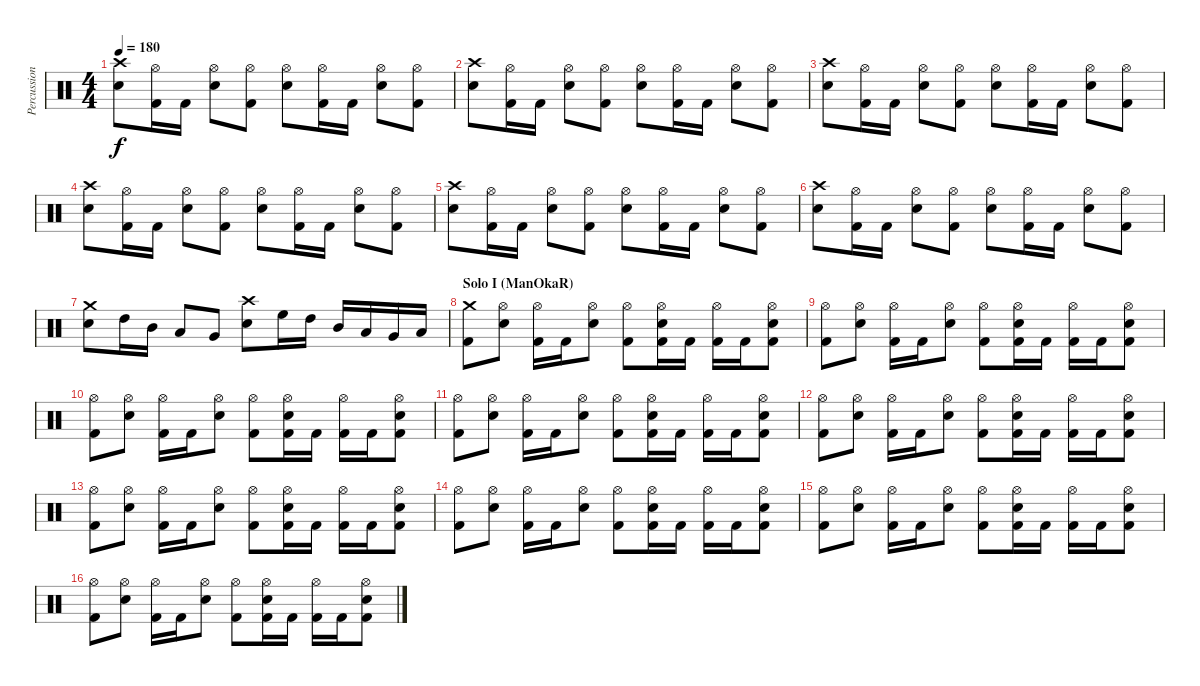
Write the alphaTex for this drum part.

\track ("Percussion" "Percussion") {instrument percussion}
\staff {score}
\articulation defaults
\ts (4 4)
\tempo 180
\clef neutral
\ks c
("Crash high (hit)" "Snare (hit) 2").8{dy f} ("Hi-Hat (open)" "Kick (hit) 2").16 "Kick (hit) 2".16 ("Hi-Hat (open)" "Snare (hit) 2").8 ("Hi-Hat (open)" "Kick (hit) 2").8 ("Hi-Hat (open)" "Snare (hit) 2").8 ("Hi-Hat (open)" "Kick (hit) 2").16 "Kick (hit) 2".16 ("Hi-Hat (open)" "Snare (hit) 2").8 ("Hi-Hat (open)" "Kick (hit) 2").8 |
("Crash high (hit)" "Snare (hit) 2").8 ("Hi-Hat (open)" "Kick (hit) 2").16 "Kick (hit) 2".16 ("Hi-Hat (open)" "Snare (hit) 2").8 ("Hi-Hat (open)" "Kick (hit) 2").8 ("Hi-Hat (open)" "Snare (hit) 2").8 ("Hi-Hat (open)" "Kick (hit) 2").16 "Kick (hit) 2".16 ("Hi-Hat (open)" "Snare (hit) 2").8 ("Hi-Hat (open)" "Kick (hit) 2").8 |
("Crash high (hit)" "Snare (hit) 2").8 ("Hi-Hat (open)" "Kick (hit) 2").16 "Kick (hit) 2".16 ("Hi-Hat (open)" "Snare (hit) 2").8 ("Hi-Hat (open)" "Kick (hit) 2").8 ("Hi-Hat (open)" "Snare (hit) 2").8 ("Hi-Hat (open)" "Kick (hit) 2").16 "Kick (hit) 2".16 ("Hi-Hat (open)" "Snare (hit) 2").8 ("Hi-Hat (open)" "Kick (hit) 2").8 |
("Crash high (hit)" "Snare (hit) 2").8 ("Hi-Hat (open)" "Kick (hit) 2").16 "Kick (hit) 2".16 ("Hi-Hat (open)" "Snare (hit) 2").8 ("Hi-Hat (open)" "Kick (hit) 2").8 ("Hi-Hat (open)" "Snare (hit) 2").8 ("Hi-Hat (open)" "Kick (hit) 2").16 "Kick (hit) 2".16 ("Hi-Hat (open)" "Snare (hit) 2").8 ("Hi-Hat (open)" "Kick (hit) 2").8 |
("Crash high (hit)" "Snare (hit) 2").8 ("Hi-Hat (open)" "Kick (hit) 2").16 "Kick (hit) 2".16 ("Hi-Hat (open)" "Snare (hit) 2").8 ("Hi-Hat (open)" "Kick (hit) 2").8 ("Hi-Hat (open)" "Snare (hit) 2").8 ("Hi-Hat (open)" "Kick (hit) 2").16 "Kick (hit) 2".16 ("Hi-Hat (open)" "Snare (hit) 2").8 ("Hi-Hat (open)" "Kick (hit) 2").8 |
("Crash high (hit)" "Snare (hit) 2").8 ("Hi-Hat (open)" "Kick (hit) 2").16 "Kick (hit) 2".16 ("Hi-Hat (open)" "Snare (hit) 2").8 ("Hi-Hat (open)" "Kick (hit) 2").8 ("Hi-Hat (open)" "Snare (hit) 2").8 ("Hi-Hat (open)" "Kick (hit) 2").16 "Kick (hit) 2".16 ("Hi-Hat (open)" "Snare (hit) 2").8 ("Hi-Hat (open)" "Kick (hit) 2").8 |
("Snare (hit) 2" "Crash medium (hit)").8 "High Tom (hit)".16 "Mid Tom (hit)".16 "Low Tom (hit)".8 "Very Low Tom (hit)".8 ("Snare (hit) 2" "Crash high (hit)").8 "High Floor Tom (hit)".16 "High Tom (hit)".16 "Mid Tom (hit)".16 "Low Tom (hit)".16 "Very Low Tom (hit)".16 "Low Floor Tom (hit)".16 |
\section ("" "Solo I (ManOkaR)")
("Crash medium (hit)" "Kick (hit) 2").8 ("Hi-Hat (open)" "Snare (hit) 2").8 ("Hi-Hat (open)" "Kick (hit) 2").16 "Kick (hit) 2".16 ("Hi-Hat (open)" "Snare (hit) 2").8 ("Hi-Hat (open)" "Kick (hit) 2").8 ("Hi-Hat (open)" "Snare (hit) 2" "Kick (hit) 2").16 "Kick (hit) 2".16 ("Hi-Hat (open)" "Kick (hit) 2").16 "Kick (hit) 2".16 ("Hi-Hat (open)" "Snare (hit) 2" "Kick (hit) 2").8 |
("Hi-Hat (open)" "Kick (hit) 2").8 ("Hi-Hat (open)" "Snare (hit) 2").8 ("Hi-Hat (open)" "Kick (hit) 2").16 "Kick (hit) 2".16 ("Hi-Hat (open)" "Snare (hit) 2").8 ("Hi-Hat (open)" "Kick (hit) 2").8 ("Hi-Hat (open)" "Snare (hit) 2" "Kick (hit) 2").16 "Kick (hit) 2".16 ("Hi-Hat (open)" "Kick (hit) 2").16 "Kick (hit) 2".16 ("Hi-Hat (open)" "Snare (hit) 2" "Kick (hit) 2").8 |
("Hi-Hat (open)" "Kick (hit) 2").8 ("Hi-Hat (open)" "Snare (hit) 2").8 ("Hi-Hat (open)" "Kick (hit) 2").16 "Kick (hit) 2".16 ("Hi-Hat (open)" "Snare (hit) 2").8 ("Hi-Hat (open)" "Kick (hit) 2").8 ("Hi-Hat (open)" "Snare (hit) 2" "Kick (hit) 2").16 "Kick (hit) 2".16 ("Hi-Hat (open)" "Kick (hit) 2").16 "Kick (hit) 2".16 ("Hi-Hat (open)" "Snare (hit) 2" "Kick (hit) 2").8 |
("Hi-Hat (open)" "Kick (hit) 2").8 ("Hi-Hat (open)" "Snare (hit) 2").8 ("Hi-Hat (open)" "Kick (hit) 2").16 "Kick (hit) 2".16 ("Hi-Hat (open)" "Snare (hit) 2").8 ("Hi-Hat (open)" "Kick (hit) 2").8 ("Hi-Hat (open)" "Snare (hit) 2" "Kick (hit) 2").16 "Kick (hit) 2".16 ("Hi-Hat (open)" "Kick (hit) 2").16 "Kick (hit) 2".16 ("Hi-Hat (open)" "Snare (hit) 2" "Kick (hit) 2").8 |
("Hi-Hat (open)" "Kick (hit) 2").8 ("Hi-Hat (open)" "Snare (hit) 2").8 ("Hi-Hat (open)" "Kick (hit) 2").16 "Kick (hit) 2".16 ("Hi-Hat (open)" "Snare (hit) 2").8 ("Hi-Hat (open)" "Kick (hit) 2").8 ("Hi-Hat (open)" "Snare (hit) 2" "Kick (hit) 2").16 "Kick (hit) 2".16 ("Hi-Hat (open)" "Kick (hit) 2").16 "Kick (hit) 2".16 ("Hi-Hat (open)" "Snare (hit) 2" "Kick (hit) 2").8 |
("Hi-Hat (open)" "Kick (hit) 2").8 ("Hi-Hat (open)" "Snare (hit) 2").8 ("Hi-Hat (open)" "Kick (hit) 2").16 "Kick (hit) 2".16 ("Hi-Hat (open)" "Snare (hit) 2").8 ("Hi-Hat (open)" "Kick (hit) 2").8 ("Hi-Hat (open)" "Snare (hit) 2" "Kick (hit) 2").16 "Kick (hit) 2".16 ("Hi-Hat (open)" "Kick (hit) 2").16 "Kick (hit) 2".16 ("Hi-Hat (open)" "Snare (hit) 2" "Kick (hit) 2").8 |
("Hi-Hat (open)" "Kick (hit) 2").8 ("Hi-Hat (open)" "Snare (hit) 2").8 ("Hi-Hat (open)" "Kick (hit) 2").16 "Kick (hit) 2".16 ("Hi-Hat (open)" "Snare (hit) 2").8 ("Hi-Hat (open)" "Kick (hit) 2").8 ("Hi-Hat (open)" "Snare (hit) 2" "Kick (hit) 2").16 "Kick (hit) 2".16 ("Hi-Hat (open)" "Kick (hit) 2").16 "Kick (hit) 2".16 ("Hi-Hat (open)" "Snare (hit) 2" "Kick (hit) 2").8 |
("Hi-Hat (open)" "Kick (hit) 2").8 ("Hi-Hat (open)" "Snare (hit) 2").8 ("Hi-Hat (open)" "Kick (hit) 2").16 "Kick (hit) 2".16 ("Hi-Hat (open)" "Snare (hit) 2").8 ("Hi-Hat (open)" "Kick (hit) 2").8 ("Hi-Hat (open)" "Snare (hit) 2" "Kick (hit) 2").16 "Kick (hit) 2".16 ("Hi-Hat (open)" "Kick (hit) 2").16 "Kick (hit) 2".16 ("Hi-Hat (open)" "Snare (hit) 2" "Kick (hit) 2").8 |
("Hi-Hat (open)" "Kick (hit) 2").8 ("Hi-Hat (open)" "Snare (hit) 2").8 ("Hi-Hat (open)" "Kick (hit) 2").16 "Kick (hit) 2".16 ("Hi-Hat (open)" "Snare (hit) 2").8 ("Hi-Hat (open)" "Kick (hit) 2").8 ("Hi-Hat (open)" "Snare (hit) 2" "Kick (hit) 2").16 "Kick (hit) 2".16 ("Hi-Hat (open)" "Kick (hit) 2").16 "Kick (hit) 2".16 ("Hi-Hat (open)" "Snare (hit) 2" "Kick (hit) 2").8
